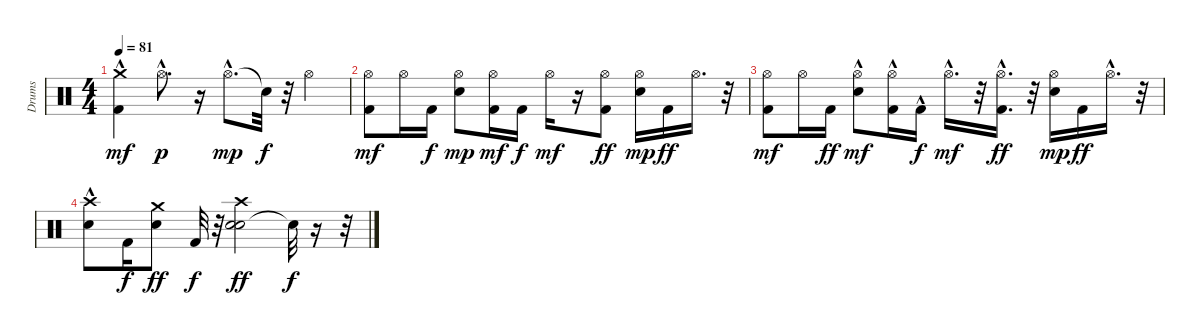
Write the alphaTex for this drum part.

\track ("Drums" "Drums") {instrument percussion}
\staff {score}
\articulation defaults
\ts (4 4)
\tempo 81
\clef neutral
\ks c
("Kick (hit) 2"{hac} "Crash medium (hit)"{hac}).4{dy mf} "Hi-Hat (open)"{hac}.8{d dy p} r.16 "Hi-Hat (open)"{hac}.8{d dy mp} "Snare (hit)"{t}.32{dy f} r.32 "Hi-Hat (open)".4 |
("Kick (hit) 2" "Hi-Hat (open)").8{dy mf} "Hi-Hat (open)".16 "Kick (hit) 2".16{dy f} ("Electric Snare (hit)" "Hi-Hat (open)").8{dy mp} ("Kick (hit) 2" "Hi-Hat (open)").16{dy mf} "Kick (hit) 2".16{dy f} "Hi-Hat (open)".16{dy mf} r.16 ("Kick (hit) 2" "Hi-Hat (open)").8{dy ff} ("Electric Snare (hit)" "Hi-Hat (open)").16{dy mp} "Kick (hit) 2".16{dy ff} "Hi-Hat (open)".16{d} r.32 |
("Kick (hit) 2" "Hi-Hat (open)").8{dy mf} "Hi-Hat (open)".16 "Kick (hit) 2".16{dy ff} ("Electric Snare (hit)" "Hi-Hat (open)"{hac}).8{dy mf} ("Kick (hit) 2" "Hi-Hat (open)"{hac}).16 "Kick (hit) 2"{hac}.16{dy f} "Hi-Hat (open)"{hac}.16{d dy mf} r.32 ("Kick (hit) 2"{hac} "Hi-Hat (open)"{hac}).16{d dy ff} r.32 ("Electric Snare (hit)" "Hi-Hat (open)").16{dy mp} "Kick (hit) 2".16{dy ff} "Hi-Hat (open)"{hac}.16{d} r.32 |
("Electric Snare (hit)"{hac} "Crash high (hit)"{hac}).8 "Kick (hit) 2".16{dy f} ("Electric Snare (hit)" "Crash medium (hit)").8{dy ff} "Kick (hit) 2".32{dy f} r.32 ("Electric Snare (hit)" "Crash high (hit)" "Electric Snare (hit)").2{dy ff} "Snare (hit)"{t}.32{dy f} r.16 r.32
